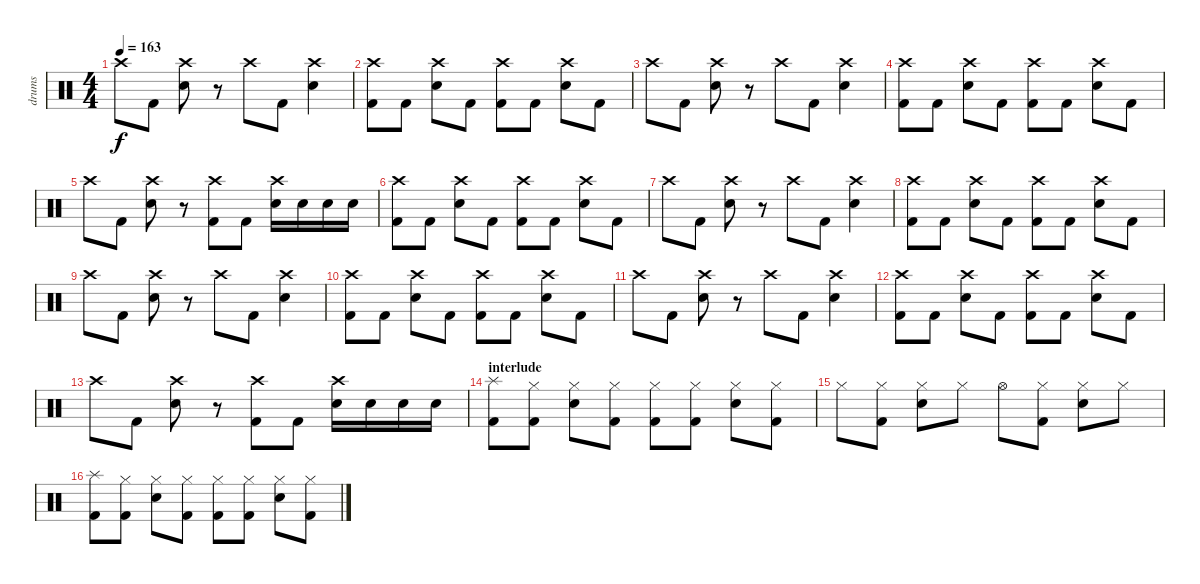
\track ("drums" "drums") {instrument percussion}
\staff {score}
\articulation defaults
\ts (4 4)
\tempo 163
\clef neutral
\ks c "Crash high (hit)".8{dy f} "Kick (hit) 2".8
("Crash high (hit)" "Electric Snare (hit)").8 r.8 "Crash high (hit)".8 "Kick (hit) 2".8 ("Crash high (hit)" "Electric Snare (hit)").4 |
("Crash high (hit)" "Kick (hit) 2").8 "Kick (hit) 2".8 ("Crash high (hit)" "Electric Snare (hit)").8 "Kick (hit) 2".8 ("Crash high (hit)" "Kick (hit) 2").8 "Kick (hit) 2".8 ("Crash high (hit)" "Electric Snare (hit)").8 "Kick (hit) 2".8 |
"Crash high (hit)".8 "Kick (hit) 2".8 ("Crash high (hit)" "Electric Snare (hit)").8 r.8 "Crash high (hit)".8 "Kick (hit) 2".8 ("Crash high (hit)" "Electric Snare (hit)").4 |
("Crash high (hit)" "Kick (hit) 2").8 "Kick (hit) 2".8 ("Crash high (hit)" "Electric Snare (hit)").8 "Kick (hit) 2".8 ("Crash high (hit)" "Kick (hit) 2").8 "Kick (hit) 2".8 ("Crash high (hit)" "Electric Snare (hit)").8 "Kick (hit) 2".8 |
"Crash high (hit)".8 "Kick (hit) 2".8 ("Crash high (hit)" "Electric Snare (hit)").8 r.8 ("Crash high (hit)" "Kick (hit) 2").8 "Kick (hit) 2".8 ("Crash high (hit)" "Electric Snare (hit)").16 "Electric Snare (hit)".16 "Electric Snare (hit)".16 "Electric Snare (hit)".16 |
("Crash high (hit)" "Kick (hit) 2").8 "Kick (hit) 2".8 ("Crash high (hit)" "Electric Snare (hit)").8 "Kick (hit) 2".8 ("Crash high (hit)" "Kick (hit) 2").8 "Kick (hit) 2".8 ("Crash high (hit)" "Electric Snare (hit)").8 "Kick (hit) 2".8 |
"Crash high (hit)".8 "Kick (hit) 2".8 ("Crash high (hit)" "Electric Snare (hit)").8 r.8 "Crash high (hit)".8 "Kick (hit) 2".8 ("Crash high (hit)" "Electric Snare (hit)").4 |
("Crash high (hit)" "Kick (hit) 2").8 "Kick (hit) 2".8 ("Crash high (hit)" "Electric Snare (hit)").8 "Kick (hit) 2".8 ("Crash high (hit)" "Kick (hit) 2").8 "Kick (hit) 2".8 ("Crash high (hit)" "Electric Snare (hit)").8 "Kick (hit) 2".8 |
"Crash high (hit)".8 "Kick (hit) 2".8 ("Crash high (hit)" "Electric Snare (hit)").8 r.8 "Crash high (hit)".8 "Kick (hit) 2".8 ("Crash high (hit)" "Electric Snare (hit)").4 |
("Crash high (hit)" "Kick (hit) 2").8 "Kick (hit) 2".8 ("Crash high (hit)" "Electric Snare (hit)").8 "Kick (hit) 2".8 ("Crash high (hit)" "Kick (hit) 2").8 "Kick (hit) 2".8 ("Crash high (hit)" "Electric Snare (hit)").8 "Kick (hit) 2".8 |
"Crash high (hit)".8 "Kick (hit) 2".8 ("Crash high (hit)" "Electric Snare (hit)").8 r.8 "Crash high (hit)".8 "Kick (hit) 2".8 ("Crash high (hit)" "Electric Snare (hit)").4 |
("Crash high (hit)" "Kick (hit) 2").8 "Kick (hit) 2".8 ("Crash high (hit)" "Electric Snare (hit)").8 "Kick (hit) 2".8 ("Crash high (hit)" "Kick (hit) 2").8 "Kick (hit) 2".8 ("Crash high (hit)" "Electric Snare (hit)").8 "Kick (hit) 2".8 |
"Crash high (hit)".8 "Kick (hit) 2".8 ("Crash high (hit)" "Electric Snare (hit)").8 r.8 ("Crash high (hit)" "Kick (hit) 2").8 "Kick (hit) 2".8 ("Crash high (hit)" "Electric Snare (hit)").16 "Electric Snare (hit)".16 "Electric Snare (hit)".16 "Electric Snare (hit)".16 |
\section ("" "interlude")
("Splash (hit)" "Kick (hit) 2").8 ("Hi-Hat (closed)" "Kick (hit) 2").8 ("Hi-Hat (closed)" "Electric Snare (hit)").8 ("Hi-Hat (closed)" "Kick (hit) 2").8 ("Hi-Hat (closed)" "Kick (hit) 2").8 ("Hi-Hat (closed)" "Kick (hit) 2").8 ("Hi-Hat (closed)" "Electric Snare (hit)").8 ("Hi-Hat (closed)" "Kick (hit) 2").8 |
"Hi-Hat (closed)".8 ("Hi-Hat (closed)" "Kick (hit) 2").8 ("Hi-Hat (closed)" "Electric Snare (hit)").8 "Hi-Hat (closed)".8 "Hi-Hat (open)".8 ("Hi-Hat (closed)" "Kick (hit) 2").8 ("Hi-Hat (closed)" "Electric Snare (hit)").8 "Hi-Hat (closed)".8 |
("Splash (hit)" "Kick (hit) 2").8 ("Hi-Hat (closed)" "Kick (hit) 2").8 ("Hi-Hat (closed)" "Electric Snare (hit)").8 ("Hi-Hat (closed)" "Kick (hit) 2").8 ("Hi-Hat (closed)" "Kick (hit) 2").8 ("Hi-Hat (closed)" "Kick (hit) 2").8 ("Hi-Hat (closed)" "Electric Snare (hit)").8 ("Hi-Hat (closed)" "Kick (hit) 2").8
